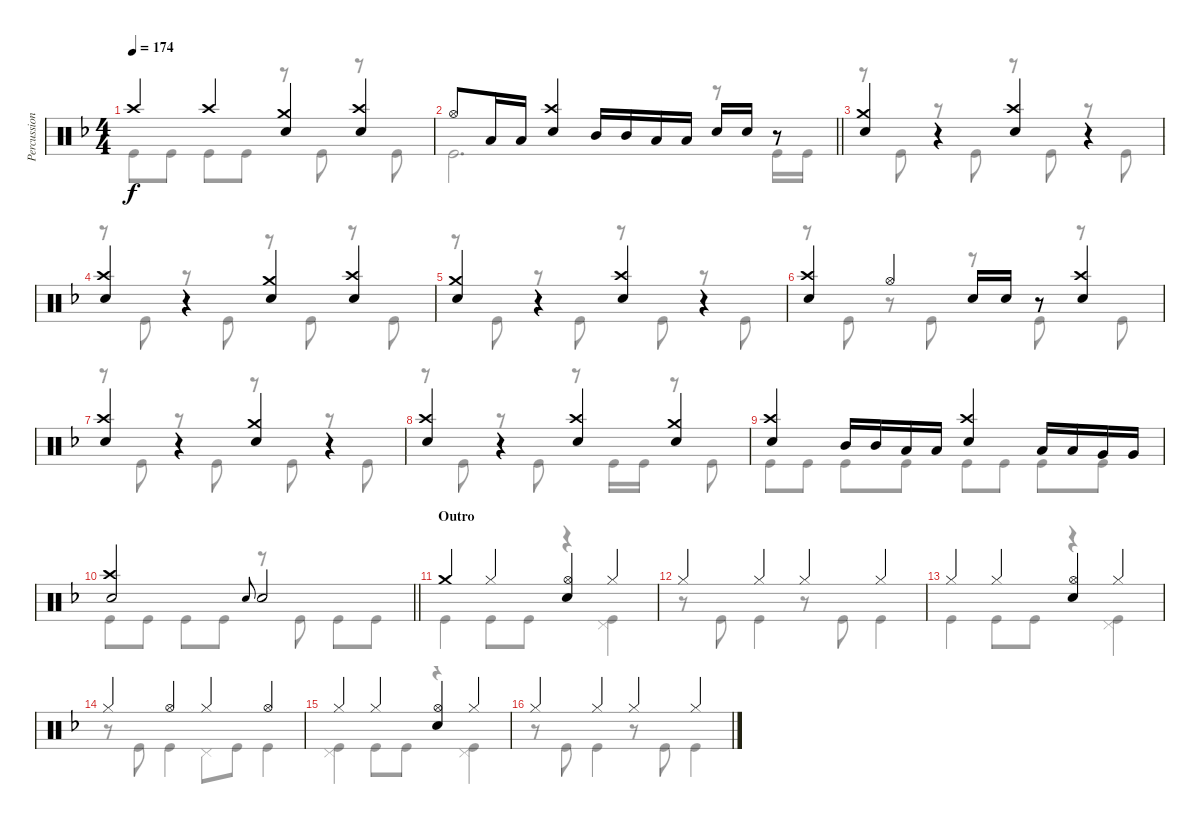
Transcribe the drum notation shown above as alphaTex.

\track ("Percussion" "Percussion") {instrument percussion}
\staff {score}
\articulation defaults
\voice
\ts (4 4)
\tempo 174
\clef neutral
\ks dminor "Crash high (hit)".4{dy f} "Crash high (hit)".4
("Crash medium (hit)" "Electric Snare (hit)").4 ("Crash high (hit)" "Electric Snare (hit)").4 |
\barLineRight lightlight "Hi-Hat (open)".8 "Low Tom (hit)".16 "Low Tom (hit)".16
("Crash high (hit)" "Electric Snare (hit)").4 "Mid Tom (hit)".16 "Mid Tom (hit)".16 "Low Tom (hit)".16 "Low Tom (hit)".16 "Electric Snare (hit)".16 "Electric Snare (hit)".16 r.8 |
\section ("" "")
("Crash medium (hit)" "Electric Snare (hit)").4 r.4 ("Crash high (hit)" "Electric Snare (hit)").4 r.4 |
("Crash high (hit)" "Electric Snare (hit)").4 r.4 ("Crash medium (hit)" "Electric Snare (hit)").4 ("Crash high (hit)" "Electric Snare (hit)").4 |
("Crash medium (hit)" "Electric Snare (hit)").4 r.4 ("Crash high (hit)" "Electric Snare (hit)").4 r.4 |
("Crash high (hit)" "Electric Snare (hit)").4 "Hi-Hat (open)".4 "Electric Snare (hit)".16 "Electric Snare (hit)".16 r.8 ("Crash high (hit)" "Electric Snare (hit)").4 |
("Crash high (hit)" "Electric Snare (hit)").4 r.4 ("Crash medium (hit)" "Electric Snare (hit)").4 r.4 |
("Crash high (hit)" "Electric Snare (hit)").4 r.4 ("Crash high (hit)" "Electric Snare (hit)").4 ("Crash medium (hit)" "Electric Snare (hit)").4 |
("Crash high (hit)" "Electric Snare (hit)").4 "Mid Tom (hit)".16 "Mid Tom (hit)".16 "Low Tom (hit)".16 "Low Tom (hit)".16 ("Crash high (hit)" "Electric Snare (hit)").4 "Low Tom (hit)".16 "Low Tom (hit)".16 "Very Low Tom (hit)".16 "Very Low Tom (hit)".16 |
\barLineRight lightlight
("Crash high (hit)" "Electric Snare (hit)").2 "Electric Snare (hit)".8{gr onbeat} "Electric Snare (hit)".2 |
\section ("" "Outro")
"Crash medium (hit)".4 "Hi-Hat (closed)".4 ("Hi-Hat (open)" "Electric Snare (hit)").4 "Hi-Hat (closed)".4 |
"Hi-Hat (closed)".4 "Hi-Hat (closed)".4 "Hi-Hat (closed)".4 "Hi-Hat (closed)".4 |
"Hi-Hat (closed)".4 "Hi-Hat (closed)".4 ("Hi-Hat (open)" "Electric Snare (hit)").4 "Hi-Hat (closed)".4 |
"Hi-Hat (closed)".4 "Hi-Hat (open)".4 "Hi-Hat (closed)".4 "Hi-Hat (open)".4 |
"Hi-Hat (closed)".4 "Hi-Hat (closed)".4 ("Hi-Hat (open)" "Electric Snare (hit)").4 "Hi-Hat (closed)".4 |
"Hi-Hat (closed)".4 "Hi-Hat (closed)".4 "Hi-Hat (closed)".4 "Hi-Hat (closed)".4
\voice
\clef neutral
\ottava regular
\simile none
\ks dminor "Kick (hit)".8{dy f} "Kick (hit)".8 "Kick (hit)".8 "Kick (hit)".8
r.8 "Kick (hit)".8 r.8 "Kick (hit)".8 |
\barLineRight lightlight "Kick (hit)".2{d}
r.8 "Kick (hit)".16 "Kick (hit)".16 |
r.8 "Kick (hit)".8 r.8 "Kick (hit)".8 r.8 "Kick (hit)".8 r.8 "Kick (hit)".8 |
r.8 "Kick (hit)".8 r.8 "Kick (hit)".8 r.8 "Kick (hit)".8 r.8 "Kick (hit)".8 |
r.8 "Kick (hit)".8 r.8 "Kick (hit)".8 r.8 "Kick (hit)".8 r.8 "Kick (hit)".8 |
r.8 "Kick (hit)".8 r.8 "Kick (hit)".8 r.8 "Kick (hit)".8 r.8 "Kick (hit)".8 |
r.8 "Kick (hit)".8 r.8 "Kick (hit)".8 r.8 "Kick (hit)".8 r.8 "Kick (hit)".8 |
r.8 "Kick (hit)".8 r.8 "Kick (hit)".8 r.8 "Kick (hit)".16 "Kick (hit)".16 r.8 "Kick (hit)".8 |
"Kick (hit)".8 "Kick (hit)".8 "Kick (hit)".8 "Kick (hit)".8 "Kick (hit)".8 "Kick (hit)".8 "Kick (hit)".8 "Kick (hit)".8 |
\barLineRight lightlight "Kick (hit)".8 "Kick (hit)".8 "Kick (hit)".8 "Kick (hit)".8
r.8 "Kick (hit)".8 "Kick (hit)".8 "Kick (hit)".8 |
"Kick (hit)".4 "Kick (hit)".8 "Kick (hit)".8 r.4 ("Pedal Hi-Hat (hit)" "Kick (hit)").4 |
r.8 "Kick (hit)".8 "Kick (hit)".4 r.8 "Kick (hit)".8 "Kick (hit)".4 |
"Kick (hit)".4 "Kick (hit)".8 "Kick (hit)".8 r.4 ("Pedal Hi-Hat (hit)" "Kick (hit)").4 |
r.8 "Kick (hit)".8 "Kick (hit)".4 "Pedal Hi-Hat (hit)".8 "Kick (hit)".8 "Kick (hit)".4 |
("Pedal Hi-Hat (hit)" "Kick (hit)").4 "Kick (hit)".8 "Kick (hit)".8 r.4 ("Pedal Hi-Hat (hit)" "Kick (hit)").4 |
r.8 "Kick (hit)".8 "Kick (hit)".4 r.8 "Kick (hit)".8 "Kick (hit)".4
